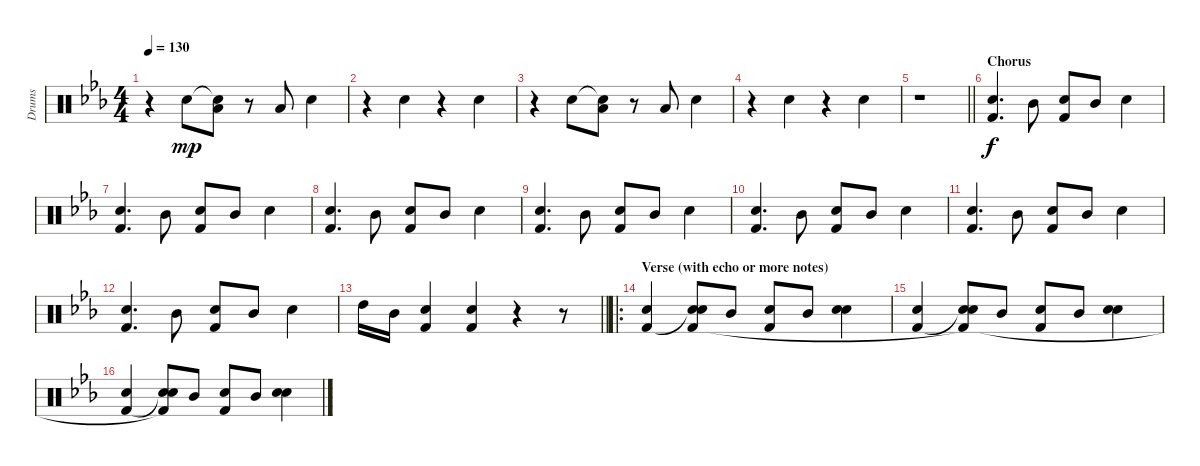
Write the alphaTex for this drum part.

\track ("Drums" "Drums") {instrument percussion}
\staff {score}
\articulation defaults
\ts (4 4)
\tempo 130
\clef neutral
\ks eb
r.4{dy mp} "Hand Clap (hit)".8 ("Hand Clap (hit)"{t} "Low Tom (hit)").8 r.8 "Low Tom (hit)".8 "Hand Clap (hit)".4 |
r.4 "Hand Clap (hit)".4 r.4 "Hand Clap (hit)".4 |
r.4 "Hand Clap (hit)".8 ("Hand Clap (hit)"{t} "Low Tom (hit)").8 r.8 "Low Tom (hit)".8 "Hand Clap (hit)".4 |
r.4 "Hand Clap (hit)".4 r.4 "Hand Clap (hit)".4 |
\barLineRight lightlight
r.1 |
\section ("" "Chorus")
("Electric Snare (hit)" "Kick (hit) 2").4{d dy f} "Mid Tom (hit)".8 ("Electric Snare (hit)" "Kick (hit) 2").8 "Mid Tom (hit)".8 "Electric Snare (hit)".4 |
("Electric Snare (hit)" "Kick (hit) 2").4{d} "Mid Tom (hit)".8 ("Electric Snare (hit)" "Kick (hit) 2").8 "Mid Tom (hit)".8 "Electric Snare (hit)".4 |
("Electric Snare (hit)" "Kick (hit) 2").4{d} "Mid Tom (hit)".8 ("Electric Snare (hit)" "Kick (hit) 2").8 "Mid Tom (hit)".8 "Electric Snare (hit)".4 |
("Electric Snare (hit)" "Kick (hit) 2").4{d} "Mid Tom (hit)".8 ("Electric Snare (hit)" "Kick (hit) 2").8 "Mid Tom (hit)".8 "Electric Snare (hit)".4 |
("Electric Snare (hit)" "Kick (hit) 2").4{d} "Mid Tom (hit)".8 ("Electric Snare (hit)" "Kick (hit) 2").8 "Mid Tom (hit)".8 "Electric Snare (hit)".4 |
("Electric Snare (hit)" "Kick (hit) 2").4{d} "Mid Tom (hit)".8 ("Electric Snare (hit)" "Kick (hit) 2").8 "Mid Tom (hit)".8 "Electric Snare (hit)".4 |
("Electric Snare (hit)" "Kick (hit) 2").4{d} "Mid Tom (hit)".8 ("Electric Snare (hit)" "Kick (hit) 2").8 "Mid Tom (hit)".8 "Electric Snare (hit)".4 |
\barLineRight lightlight "High Tom (hit)".16 "Mid Tom (hit)".16
("Kick (hit) 2" "Electric Snare (hit)").4 ("Kick (hit) 2" "Electric Snare (hit)").4 r.4 r.8 |
\ro
\section ("" "Verse (with echo or more notes)")
("Electric Snare (hit)" "Kick (hit) 2").4 ("Hand Clap (hit)" "Electric Snare (hit)"{t} "Kick (hit) 2").8 "Mid Tom (hit)".8 ("Electric Snare (hit)" "Kick (hit) 2").8 "Mid Tom (hit)".8 ("Hand Clap (hit)" "Electric Snare (hit)").4 |
("Electric Snare (hit)" "Kick (hit) 2").4 ("Hand Clap (hit)" "Electric Snare (hit)"{t} "Kick (hit) 2"{t}).8 "Mid Tom (hit)".8 ("Electric Snare (hit)" "Kick (hit) 2").8 "Mid Tom (hit)".8 ("Hand Clap (hit)" "Electric Snare (hit)").4 |
("Electric Snare (hit)" "Kick (hit) 2").4 ("Hand Clap (hit)" "Electric Snare (hit)"{t} "Kick (hit) 2"{t}).8 "Mid Tom (hit)".8 ("Electric Snare (hit)" "Kick (hit) 2").8 "Mid Tom (hit)".8 ("Hand Clap (hit)" "Electric Snare (hit)").4
